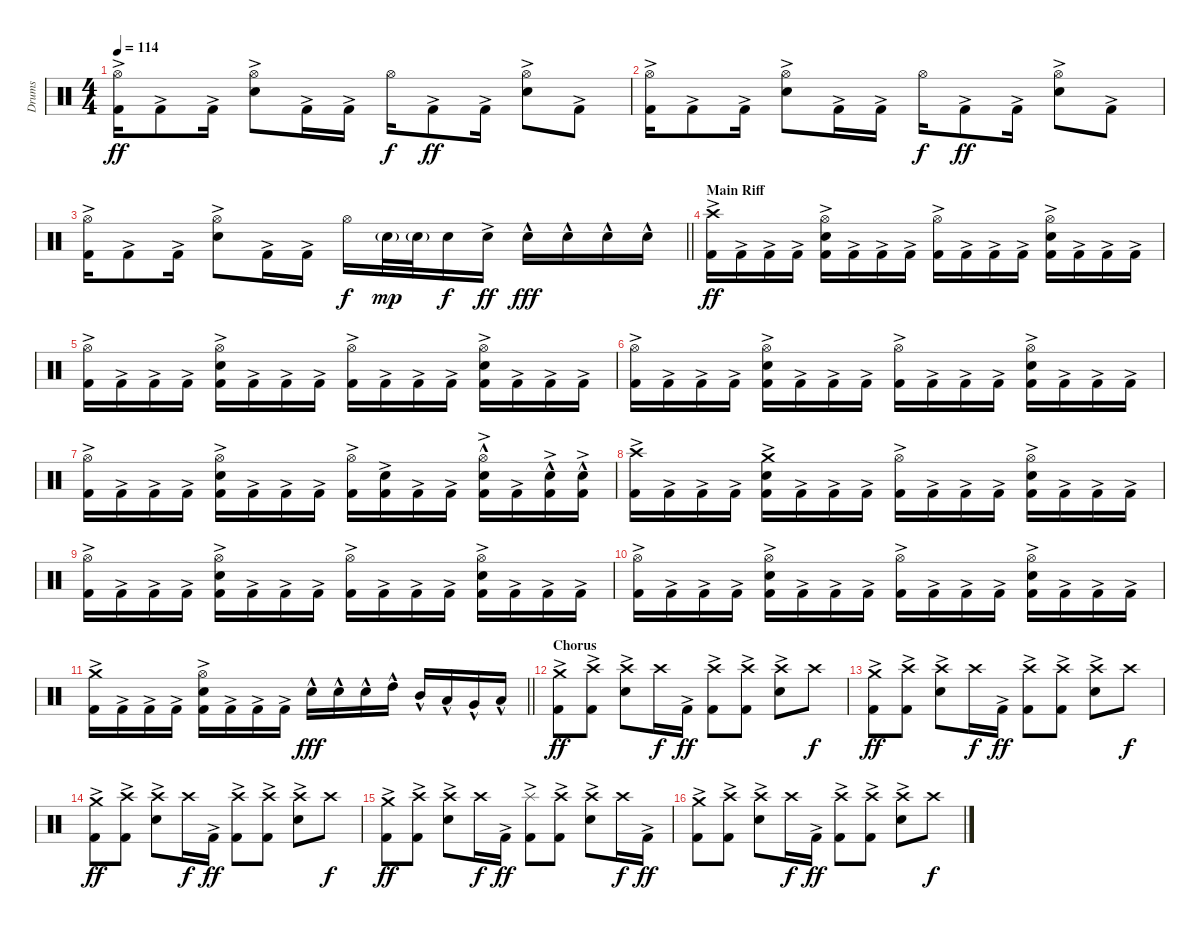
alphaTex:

\track ("Drums" "Drums") {instrument percussion}
\staff {score}
\articulation defaults
\ts (4 4)
\tempo 114
\clef neutral
\ks c
("Hi-Hat (open)" "Kick (hit) 2"{ac}).16{dy ff} "Kick (hit) 2"{ac}.8 "Kick (hit) 2"{ac}.16 ("Hi-Hat (open)" "Electric Snare (hit)"{ac}).8 "Kick (hit) 2"{ac}.16 "Kick (hit) 2"{ac}.16 "Hi-Hat (open)".16{dy f} "Kick (hit) 2"{ac}.8{dy ff} "Kick (hit) 2"{ac}.16 ("Hi-Hat (open)" "Electric Snare (hit)"{ac}).8 "Kick (hit) 2"{ac}.8 |
("Hi-Hat (open)" "Kick (hit) 2"{ac}).16 "Kick (hit) 2"{ac}.8 "Kick (hit) 2"{ac}.16 ("Hi-Hat (open)" "Electric Snare (hit)"{ac}).8 "Kick (hit) 2"{ac}.16 "Kick (hit) 2"{ac}.16 "Hi-Hat (open)".16{dy f} "Kick (hit) 2"{ac}.8{dy ff} "Kick (hit) 2"{ac}.16 ("Hi-Hat (open)" "Electric Snare (hit)"{ac}).8 "Kick (hit) 2"{ac}.8 |
\barLineRight lightlight
("Hi-Hat (open)" "Kick (hit) 2"{ac}).16 "Kick (hit) 2"{ac}.8 "Kick (hit) 2"{ac}.16 ("Hi-Hat (open)" "Electric Snare (hit)"{ac}).8 "Kick (hit) 2"{ac}.16 "Kick (hit) 2"{ac}.16 "Hi-Hat (open)".16{dy f} "Electric Snare (hit)"{g}.32{dy mp} "Electric Snare (hit)"{g}.32 "Electric Snare (hit)".16{dy f} "Electric Snare (hit)"{ac}.16{dy ff} "Electric Snare (hit)"{hac}.16{dy fff} "Electric Snare (hit)"{hac}.16 "Electric Snare (hit)"{hac}.16 "Electric Snare (hit)"{hac}.16 |
\section ("" "Main Riff")
("Crash high (hit)" "Kick (hit) 2"{ac}).16{dy ff} "Kick (hit) 2"{ac}.16 "Kick (hit) 2"{ac}.16 "Kick (hit) 2"{ac}.16 ("Hi-Hat (open)" "Electric Snare (hit)"{ac} "Kick (hit) 2"{ac}).16 "Kick (hit) 2"{ac}.16 "Kick (hit) 2"{ac}.16 "Kick (hit) 2"{ac}.16 ("Hi-Hat (open)" "Kick (hit) 2"{ac}).16 "Kick (hit) 2"{ac}.16 "Kick (hit) 2"{ac}.16 "Kick (hit) 2"{ac}.16 ("Hi-Hat (open)" "Electric Snare (hit)"{ac} "Kick (hit) 2"{ac}).16 "Kick (hit) 2"{ac}.16 "Kick (hit) 2"{ac}.16 "Kick (hit) 2"{ac}.16 |
("Hi-Hat (open)" "Kick (hit) 2"{ac}).16 "Kick (hit) 2"{ac}.16 "Kick (hit) 2"{ac}.16 "Kick (hit) 2"{ac}.16 ("Hi-Hat (open)" "Electric Snare (hit)"{ac} "Kick (hit) 2"{ac}).16 "Kick (hit) 2"{ac}.16 "Kick (hit) 2"{ac}.16 "Kick (hit) 2"{ac}.16 ("Hi-Hat (open)" "Kick (hit) 2"{ac}).16 "Kick (hit) 2"{ac}.16 "Kick (hit) 2"{ac}.16 "Kick (hit) 2"{ac}.16 ("Hi-Hat (open)" "Electric Snare (hit)"{ac} "Kick (hit) 2"{ac}).16 "Kick (hit) 2"{ac}.16 "Kick (hit) 2"{ac}.16 "Kick (hit) 2"{ac}.16 |
("Hi-Hat (open)" "Kick (hit) 2"{ac}).16 "Kick (hit) 2"{ac}.16 "Kick (hit) 2"{ac}.16 "Kick (hit) 2"{ac}.16 ("Hi-Hat (open)" "Electric Snare (hit)"{ac} "Kick (hit) 2"{ac}).16 "Kick (hit) 2"{ac}.16 "Kick (hit) 2"{ac}.16 "Kick (hit) 2"{ac}.16 ("Hi-Hat (open)" "Kick (hit) 2"{ac}).16 "Kick (hit) 2"{ac}.16 "Kick (hit) 2"{ac}.16 "Kick (hit) 2"{ac}.16 ("Hi-Hat (open)" "Electric Snare (hit)"{ac} "Kick (hit) 2"{ac}).16 "Kick (hit) 2"{ac}.16 "Kick (hit) 2"{ac}.16 "Kick (hit) 2"{ac}.16 |
("Hi-Hat (open)" "Kick (hit) 2"{ac}).16 "Kick (hit) 2"{ac}.16 "Kick (hit) 2"{ac}.16 "Kick (hit) 2"{ac}.16 ("Hi-Hat (open)" "Electric Snare (hit)"{ac} "Kick (hit) 2"{ac}).16 "Kick (hit) 2"{ac}.16 "Kick (hit) 2"{ac}.16 "Kick (hit) 2"{ac}.16 ("Hi-Hat (open)" "Kick (hit) 2"{ac}).16 ("Electric Snare (hit)"{ac} "Kick (hit) 2"{ac}).16 "Kick (hit) 2"{ac}.16 "Kick (hit) 2"{ac}.16 ("Hi-Hat (open)" "Electric Snare (hit)"{hac} "Kick (hit) 2"{ac}).16 "Kick (hit) 2"{ac}.16 ("Electric Snare (hit)"{hac} "Kick (hit) 2"{ac}).16 ("Electric Snare (hit)"{hac} "Kick (hit) 2"{ac}).16 |
("Crash high (hit)" "Kick (hit) 2"{ac}).16 "Kick (hit) 2"{ac}.16 "Kick (hit) 2"{ac}.16 "Kick (hit) 2"{ac}.16 ("Crash medium (hit)" "Electric Snare (hit)"{ac} "Kick (hit) 2"{ac}).16 "Kick (hit) 2"{ac}.16 "Kick (hit) 2"{ac}.16 "Kick (hit) 2"{ac}.16 ("Hi-Hat (open)" "Kick (hit) 2"{ac}).16 "Kick (hit) 2"{ac}.16 "Kick (hit) 2"{ac}.16 "Kick (hit) 2"{ac}.16 ("Hi-Hat (open)" "Electric Snare (hit)"{ac} "Kick (hit) 2"{ac}).16 "Kick (hit) 2"{ac}.16 "Kick (hit) 2"{ac}.16 "Kick (hit) 2"{ac}.16 |
("Hi-Hat (open)" "Kick (hit) 2"{ac}).16 "Kick (hit) 2"{ac}.16 "Kick (hit) 2"{ac}.16 "Kick (hit) 2"{ac}.16 ("Hi-Hat (open)" "Electric Snare (hit)"{ac} "Kick (hit) 2"{ac}).16 "Kick (hit) 2"{ac}.16 "Kick (hit) 2"{ac}.16 "Kick (hit) 2"{ac}.16 ("Hi-Hat (open)" "Kick (hit) 2"{ac}).16 "Kick (hit) 2"{ac}.16 "Kick (hit) 2"{ac}.16 "Kick (hit) 2"{ac}.16 ("Hi-Hat (open)" "Electric Snare (hit)"{ac} "Kick (hit) 2"{ac}).16 "Kick (hit) 2"{ac}.16 "Kick (hit) 2"{ac}.16 "Kick (hit) 2"{ac}.16 |
("Hi-Hat (open)" "Kick (hit) 2"{ac}).16 "Kick (hit) 2"{ac}.16 "Kick (hit) 2"{ac}.16 "Kick (hit) 2"{ac}.16 ("Hi-Hat (open)" "Electric Snare (hit)"{ac} "Kick (hit) 2"{ac}).16 "Kick (hit) 2"{ac}.16 "Kick (hit) 2"{ac}.16 "Kick (hit) 2"{ac}.16 ("Hi-Hat (open)" "Kick (hit) 2"{ac}).16 "Kick (hit) 2"{ac}.16 "Kick (hit) 2"{ac}.16 "Kick (hit) 2"{ac}.16 ("Hi-Hat (open)" "Electric Snare (hit)"{ac} "Kick (hit) 2"{ac}).16 "Kick (hit) 2"{ac}.16 "Kick (hit) 2"{ac}.16 "Kick (hit) 2"{ac}.16 |
\barLineRight lightlight
("Crash medium (hit)" "Kick (hit) 2"{ac}).16 "Kick (hit) 2"{ac}.16 "Kick (hit) 2"{ac}.16 "Kick (hit) 2"{ac}.16 ("Hi-Hat (open)" "Electric Snare (hit)"{ac} "Kick (hit) 2"{ac}).16 "Kick (hit) 2"{ac}.16 "Kick (hit) 2"{ac}.16 "Kick (hit) 2"{ac}.16 "Electric Snare (hit)"{hac}.16{dy fff} "Electric Snare (hit)"{hac}.16 "Snare (hit) 2"{hac}.16 "High Tom (hit)"{hac}.16 "Mid Tom (hit)"{hac}.16 "Low Tom (hit)"{hac}.16 "Very Low Tom (hit)"{hac}.16 "Low Floor Tom (hit)"{hac}.16 |
\section ("" "Chorus")
("Crash medium (hit)" "Kick (hit) 2"{ac}).8{dy ff} ("Crash high (hit)" "Kick (hit) 2"{ac}).8 ("Crash high (hit)" "Electric Snare (hit)"{ac}).8 "Crash high (hit)".16{dy f} "Kick (hit) 2"{ac}.16{dy ff} ("Crash high (hit)" "Kick (hit) 2"{ac}).8 ("Crash high (hit)" "Kick (hit) 2"{ac}).8 ("Crash high (hit)" "Electric Snare (hit)"{ac}).8 "Crash high (hit)".8{dy f} |
("Crash medium (hit)" "Kick (hit) 2"{ac}).8{dy ff} ("Crash high (hit)" "Kick (hit) 2"{ac}).8 ("Crash high (hit)" "Electric Snare (hit)"{ac}).8 "Crash high (hit)".16{dy f} "Kick (hit) 2"{ac}.16{dy ff} ("Crash high (hit)" "Kick (hit) 2"{ac}).8 ("Crash high (hit)" "Kick (hit) 2"{ac}).8 ("Crash high (hit)" "Electric Snare (hit)"{ac}).8 "Crash high (hit)".8{dy f} |
("Crash medium (hit)" "Kick (hit) 2"{ac}).8{dy ff} ("Crash high (hit)" "Kick (hit) 2"{ac}).8 ("Crash high (hit)" "Electric Snare (hit)"{ac}).8 "Crash high (hit)".16{dy f} "Kick (hit) 2"{ac}.16{dy ff} ("Crash high (hit)" "Kick (hit) 2"{ac}).8 ("Crash high (hit)" "Kick (hit) 2"{ac}).8 ("Crash high (hit)" "Electric Snare (hit)"{ac}).8 "Crash high (hit)".8{dy f} |
("Crash medium (hit)" "Kick (hit) 2"{ac}).8{dy ff} ("Crash high (hit)" "Kick (hit) 2"{ac}).8 ("Crash high (hit)" "Electric Snare (hit)"{ac}).8 "Crash high (hit)".16{dy f} "Kick (hit) 2"{ac}.16{dy ff} ("Splash (hit)" "Kick (hit) 2"{ac}).8 ("Crash high (hit)" "Kick (hit) 2"{ac}).8 ("Crash high (hit)" "Electric Snare (hit)"{ac}).8 "Crash high (hit)".16{dy f} "Kick (hit) 2"{ac}.16{dy ff} |
("Crash medium (hit)" "Kick (hit) 2"{ac}).8 ("Crash high (hit)" "Kick (hit) 2"{ac}).8 ("Crash high (hit)" "Electric Snare (hit)"{ac}).8 "Crash high (hit)".16{dy f} "Kick (hit) 2"{ac}.16{dy ff} ("Crash high (hit)" "Kick (hit) 2"{ac}).8 ("Crash high (hit)" "Kick (hit) 2"{ac}).8 ("Crash high (hit)" "Electric Snare (hit)"{ac}).8 "Crash high (hit)".8{dy f}
